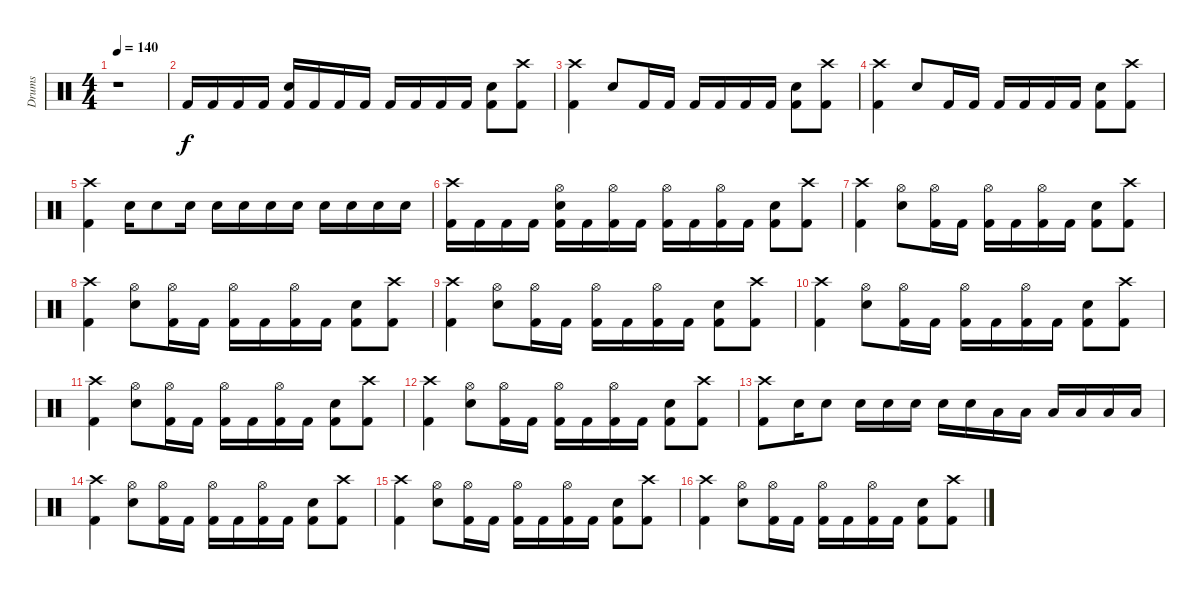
\track ("Drums" "Drums") {instrument percussion}
\staff {score}
\articulation defaults
\ts (4 4)
\tempo 140
\clef neutral
\ks c
r.1{dy f} |
"Kick (hit) 2".16 "Kick (hit) 2".16 "Kick (hit) 2".16 "Kick (hit) 2".16 ("Kick (hit) 2" "Snare (hit) 2").16 "Kick (hit) 2".16 "Kick (hit) 2".16 "Kick (hit) 2".16 "Kick (hit) 2".16 "Kick (hit) 2".16 "Kick (hit) 2".16 "Kick (hit) 2".16 ("Kick (hit) 2" "Snare (hit) 2").8 ("Kick (hit) 2" "Crash high (hit)").8 |
("Kick (hit) 2" "Crash high (hit)").4 "Snare (hit) 2".8 "Kick (hit) 2".16 "Kick (hit) 2".16 "Kick (hit) 2".16 "Kick (hit) 2".16 "Kick (hit) 2".16 "Kick (hit) 2".16 ("Snare (hit) 2" "Kick (hit) 2").8 ("Crash high (hit)" "Kick (hit) 2").8 |
("Kick (hit) 2" "Crash high (hit)").4 "Snare (hit) 2".8 "Kick (hit) 2".16 "Kick (hit) 2".16 "Kick (hit) 2".16 "Kick (hit) 2".16 "Kick (hit) 2".16 "Kick (hit) 2".16 ("Snare (hit) 2" "Kick (hit) 2").8 ("Crash high (hit)" "Kick (hit) 2").8 |
("Kick (hit) 2" "Crash high (hit)").4 "Snare (hit) 2".16 "Snare (hit) 2".8 "Snare (hit) 2".16 "Snare (hit) 2".16 "Snare (hit) 2".16 "Snare (hit) 2".16 "Snare (hit) 2".16 "Snare (hit) 2".16 "Snare (hit) 2".16 "Snare (hit) 2".16 "Snare (hit) 2".16 |
("Crash high (hit)" "Kick (hit) 2").16 "Kick (hit) 2".16 "Kick (hit) 2".16 "Kick (hit) 2".16 ("Kick (hit) 2" "Hi-Hat (open)" "Snare (hit) 2").16 "Kick (hit) 2".16 ("Hi-Hat (open)" "Kick (hit) 2").16 "Kick (hit) 2".16 ("Kick (hit) 2" "Hi-Hat (open)").16 "Kick (hit) 2".16 ("Kick (hit) 2" "Hi-Hat (open)").16 "Kick (hit) 2".16 ("Kick (hit) 2" "Snare (hit) 2").8 ("Crash high (hit)" "Kick (hit) 2").8 |
("Kick (hit) 2" "Crash high (hit)").4 ("Snare (hit) 2" "Hi-Hat (open)").8 ("Kick (hit) 2" "Hi-Hat (open)").16 "Kick (hit) 2".16 ("Hi-Hat (open)" "Kick (hit) 2").16 "Kick (hit) 2".16 ("Hi-Hat (open)" "Kick (hit) 2").16 "Kick (hit) 2".16 ("Snare (hit) 2" "Kick (hit) 2").8 ("Kick (hit) 2" "Crash high (hit)").8 |
("Kick (hit) 2" "Crash high (hit)").4 ("Snare (hit) 2" "Hi-Hat (open)").8 ("Kick (hit) 2" "Hi-Hat (open)").16 "Kick (hit) 2".16 ("Hi-Hat (open)" "Kick (hit) 2").16 "Kick (hit) 2".16 ("Hi-Hat (open)" "Kick (hit) 2").16 "Kick (hit) 2".16 ("Snare (hit) 2" "Kick (hit) 2").8 ("Kick (hit) 2" "Crash high (hit)").8 |
("Kick (hit) 2" "Crash high (hit)").4 ("Snare (hit) 2" "Hi-Hat (open)").8 ("Kick (hit) 2" "Hi-Hat (open)").16 "Kick (hit) 2".16 ("Hi-Hat (open)" "Kick (hit) 2").16 "Kick (hit) 2".16 ("Hi-Hat (open)" "Kick (hit) 2").16 "Kick (hit) 2".16 ("Snare (hit) 2" "Kick (hit) 2").8 ("Kick (hit) 2" "Crash high (hit)").8 |
("Kick (hit) 2" "Crash high (hit)").4 ("Snare (hit) 2" "Hi-Hat (open)").8 ("Kick (hit) 2" "Hi-Hat (open)").16 "Kick (hit) 2".16 ("Hi-Hat (open)" "Kick (hit) 2").16 "Kick (hit) 2".16 ("Hi-Hat (open)" "Kick (hit) 2").16 "Kick (hit) 2".16 ("Snare (hit) 2" "Kick (hit) 2").8 ("Kick (hit) 2" "Crash high (hit)").8 |
("Kick (hit) 2" "Crash high (hit)").4 ("Snare (hit) 2" "Hi-Hat (open)").8 ("Kick (hit) 2" "Hi-Hat (open)").16 "Kick (hit) 2".16 ("Hi-Hat (open)" "Kick (hit) 2").16 "Kick (hit) 2".16 ("Hi-Hat (open)" "Kick (hit) 2").16 "Kick (hit) 2".16 ("Snare (hit) 2" "Kick (hit) 2").8 ("Kick (hit) 2" "Crash high (hit)").8 |
("Kick (hit) 2" "Crash high (hit)").4 ("Snare (hit) 2" "Hi-Hat (open)").8 ("Kick (hit) 2" "Hi-Hat (open)").16 "Kick (hit) 2".16 ("Hi-Hat (open)" "Kick (hit) 2").16 "Kick (hit) 2".16 ("Hi-Hat (open)" "Kick (hit) 2").16 "Kick (hit) 2".16 ("Snare (hit) 2" "Kick (hit) 2").8 ("Kick (hit) 2" "Crash high (hit)").8 |
("Kick (hit) 2" "Crash high (hit)").8 "Snare (hit) 2".16 "Snare (hit) 2".8 "Snare (hit) 2".16 "Snare (hit) 2".16 "Snare (hit) 2".16 "Snare (hit) 2".16 "Snare (hit) 2".16 "Low Tom (hit)".16 "Low Tom (hit)".16 "Low Tom (hit)".16 "Low Tom (hit)".16 "Low Tom (hit)".16 "Low Tom (hit)".16 |
("Kick (hit) 2" "Crash high (hit)").4 ("Snare (hit) 2" "Hi-Hat (open)").8 ("Kick (hit) 2" "Hi-Hat (open)").16 "Kick (hit) 2".16 ("Hi-Hat (open)" "Kick (hit) 2").16 "Kick (hit) 2".16 ("Hi-Hat (open)" "Kick (hit) 2").16 "Kick (hit) 2".16 ("Snare (hit) 2" "Kick (hit) 2").8 ("Kick (hit) 2" "Crash high (hit)").8 |
("Kick (hit) 2" "Crash high (hit)").4 ("Snare (hit) 2" "Hi-Hat (open)").8 ("Kick (hit) 2" "Hi-Hat (open)").16 "Kick (hit) 2".16 ("Hi-Hat (open)" "Kick (hit) 2").16 "Kick (hit) 2".16 ("Hi-Hat (open)" "Kick (hit) 2").16 "Kick (hit) 2".16 ("Snare (hit) 2" "Kick (hit) 2").8 ("Kick (hit) 2" "Crash high (hit)").8 |
("Kick (hit) 2" "Crash high (hit)").4 ("Snare (hit) 2" "Hi-Hat (open)").8 ("Kick (hit) 2" "Hi-Hat (open)").16 "Kick (hit) 2".16 ("Hi-Hat (open)" "Kick (hit) 2").16 "Kick (hit) 2".16 ("Hi-Hat (open)" "Kick (hit) 2").16 "Kick (hit) 2".16 ("Snare (hit) 2" "Kick (hit) 2").8 ("Kick (hit) 2" "Crash high (hit)").8
